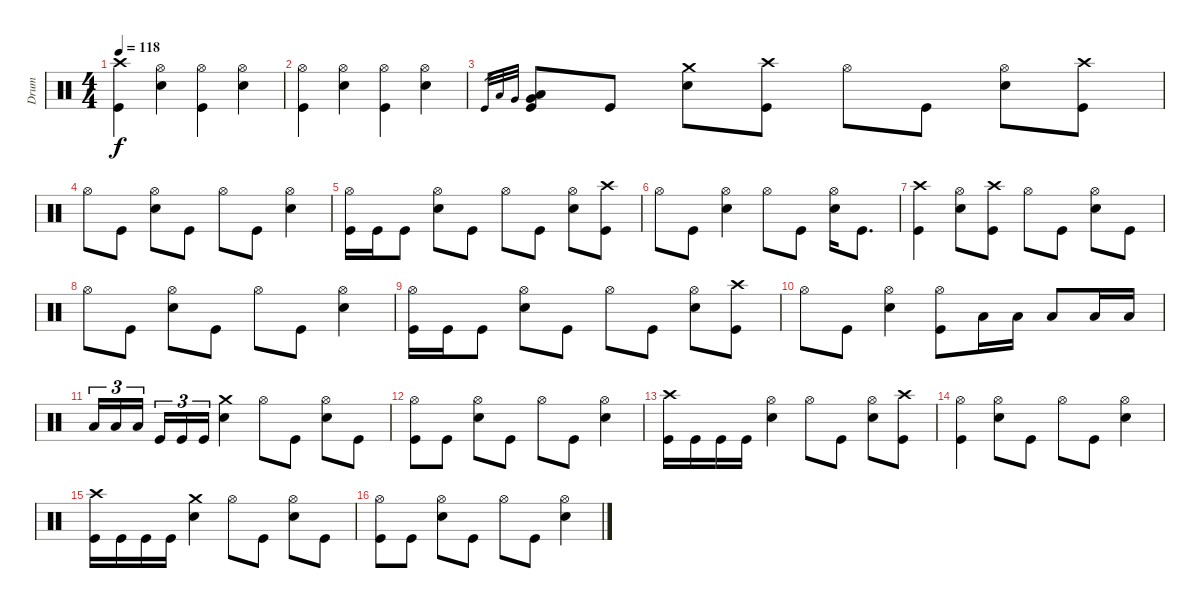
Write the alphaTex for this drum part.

\track ("Drum" "Drum") {instrument percussion}
\staff {score}
\articulation defaults
\ts (4 4)
\tempo 118
\clef neutral
\ks c
("Kick (hit)" "Crash high (hit)").4{dy f} ("Hi-Hat (open)" "Snare (hit) 2").4 ("Kick (hit)" "Hi-Hat (open)").4 ("Hi-Hat (open)" "Snare (hit) 2").4 |
("Kick (hit)" "Hi-Hat (open)").4 ("Hi-Hat (open)" "Snare (hit) 2").4 ("Kick (hit)" "Hi-Hat (open)").4 ("Hi-Hat (open)" "Snare (hit) 2").4 |
"Kick (hit)".32{gr} "Low Floor Tom (hit)".32{gr} "Very Low Tom (hit)".32{gr} ("Kick (hit)" "Low Floor Tom (hit)" "Very Low Tom (hit)").8 "Kick (hit)".8 ("Snare (hit) 2" "Crash medium (hit)").8 ("Kick (hit)" "Crash high (hit)").8 "Hi-Hat (open)".8 "Kick (hit)".8 ("Hi-Hat (open)" "Snare (hit) 2").8 ("Kick (hit)" "Crash high (hit)").8 |
"Hi-Hat (open)".8 "Kick (hit)".8 ("Hi-Hat (open)" "Snare (hit) 2").8 "Kick (hit)".8 "Hi-Hat (open)".8 "Kick (hit)".8 ("Hi-Hat (open)" "Snare (hit) 2").4 |
("Kick (hit)" "Hi-Hat (open)").16 "Kick (hit)".16 "Kick (hit)".8 ("Hi-Hat (open)" "Snare (hit) 2").8 "Kick (hit)".8 "Hi-Hat (open)".8 "Kick (hit)".8 ("Hi-Hat (open)" "Snare (hit) 2").8 ("Kick (hit)" "Crash high (hit)").8 |
"Hi-Hat (open)".8 "Kick (hit)".8 ("Hi-Hat (open)" "Snare (hit) 2").4 "Hi-Hat (open)".8 "Kick (hit)".8 ("Hi-Hat (open)" "Snare (hit) 2").16 "Kick (hit)".8{d} |
("Kick (hit)" "Crash high (hit)").4 ("Hi-Hat (open)" "Snare (hit) 2").8 ("Kick (hit)" "Crash high (hit)").8 "Hi-Hat (open)".8 "Kick (hit)".8 ("Hi-Hat (open)" "Snare (hit) 2").8 "Kick (hit)".8 |
"Hi-Hat (open)".8 "Kick (hit)".8 ("Hi-Hat (open)" "Snare (hit) 2").8 "Kick (hit)".8 "Hi-Hat (open)".8 "Kick (hit)".8 ("Hi-Hat (open)" "Snare (hit) 2").4 |
("Kick (hit)" "Hi-Hat (open)").16 "Kick (hit)".16 "Kick (hit)".8 ("Hi-Hat (open)" "Snare (hit) 2").8 "Kick (hit)".8 "Hi-Hat (open)".8 "Kick (hit)".8 ("Hi-Hat (open)" "Snare (hit) 2").8 ("Kick (hit)" "Crash high (hit)").8 |
"Hi-Hat (open)".8 "Kick (hit)".8 ("Hi-Hat (open)" "Snare (hit) 2").4 ("Kick (hit)" "Hi-Hat (open)").8 "Low Floor Tom (hit)".16 "Low Floor Tom (hit)".16 "Low Floor Tom (hit)".8 "Low Floor Tom (hit)".16 "Low Floor Tom (hit)".16 |
"Low Floor Tom (hit)".16{tu (3 2)} "Low Floor Tom (hit)".16{tu (3 2)} "Low Floor Tom (hit)".16{tu (3 2)} "Kick (hit)".16{tu (3 2)} "Kick (hit)".16{tu (3 2)} "Kick (hit)".16{tu (3 2)} ("Crash medium (hit)" "Snare (hit) 2").4 "Hi-Hat (open)".8 "Kick (hit)".8 ("Hi-Hat (open)" "Snare (hit) 2").8 "Kick (hit)".8 |
("Kick (hit)" "Hi-Hat (open)").8 "Kick (hit)".8 ("Hi-Hat (open)" "Snare (hit) 2").8 "Kick (hit)".8 "Hi-Hat (open)".8 "Kick (hit)".8 ("Hi-Hat (open)" "Snare (hit) 2").4 |
("Kick (hit)" "Crash high (hit)").16 "Kick (hit)".16 "Kick (hit)".16 "Kick (hit)".16 ("Hi-Hat (open)" "Snare (hit) 2").4 "Hi-Hat (open)".8 "Kick (hit)".8 ("Hi-Hat (open)" "Snare (hit) 2").8 ("Kick (hit)" "Crash high (hit)").8 |
("Kick (hit)" "Hi-Hat (open)").4 ("Hi-Hat (open)" "Snare (hit) 2").8 "Kick (hit)".8 "Hi-Hat (open)".8 "Kick (hit)".8 ("Hi-Hat (open)" "Snare (hit) 2").4 |
("Kick (hit)" "Crash high (hit)").16 "Kick (hit)".16 "Kick (hit)".16 "Kick (hit)".16 ("Crash medium (hit)" "Snare (hit) 2").4 "Hi-Hat (open)".8 "Kick (hit)".8 ("Hi-Hat (open)" "Snare (hit) 2").8 "Kick (hit)".8 |
("Kick (hit)" "Hi-Hat (open)").8 "Kick (hit)".8 ("Hi-Hat (open)" "Snare (hit) 2").8 "Kick (hit)".8 "Hi-Hat (open)".8 "Kick (hit)".8 ("Hi-Hat (open)" "Snare (hit) 2").4
